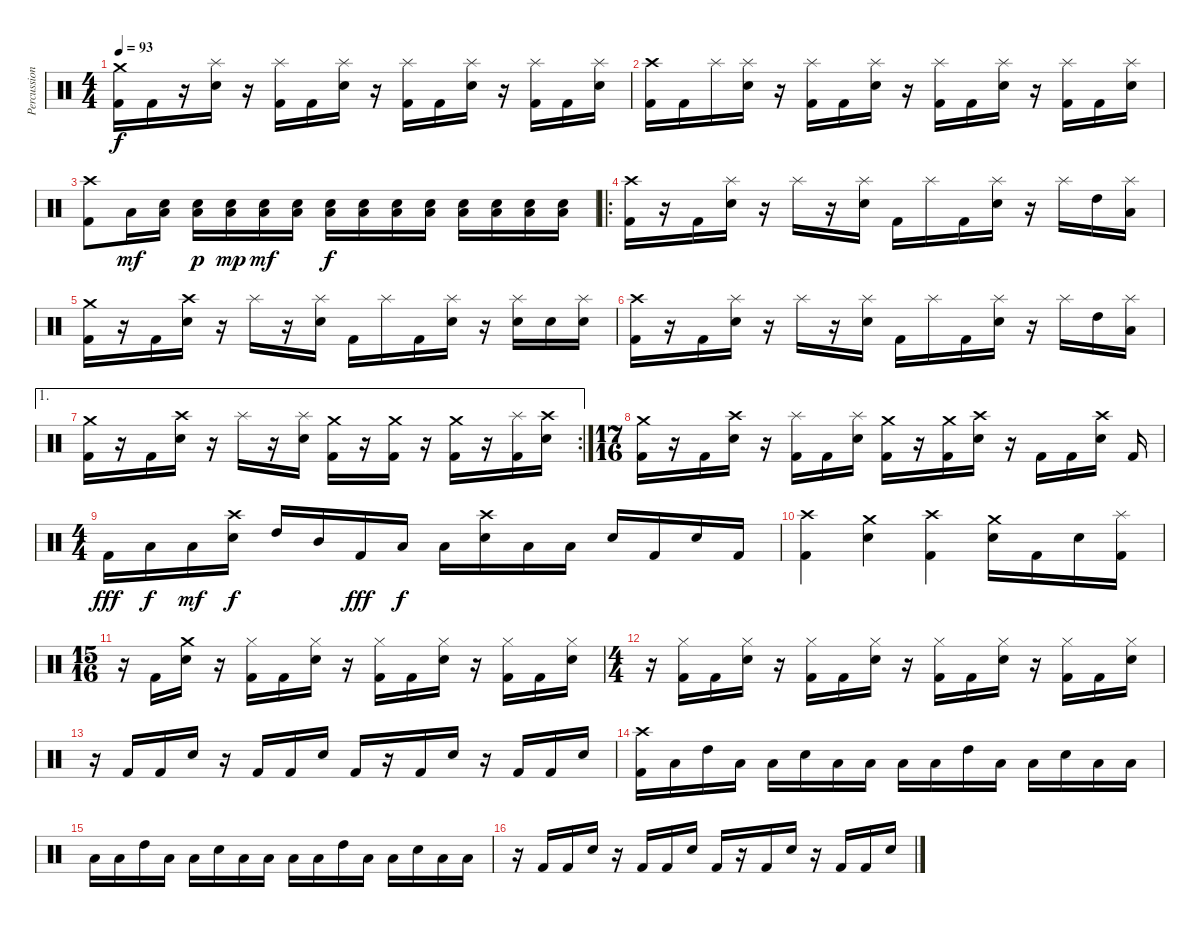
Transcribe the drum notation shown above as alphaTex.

\track ("Percussion" "Percussion") {instrument percussion}
\staff {score}
\articulation defaults
\ts (4 4)
\tempo 93
\clef neutral
\ks c
("Crash medium (hit)" "Kick (hit) 2").16{dy f} "Kick (hit) 2".16 r.16 ("Splash (hit)" "Electric Snare (hit)").16 r.16 ("Splash (hit)" "Kick (hit) 2").16 "Kick (hit) 2".16 ("Splash (hit)" "Electric Snare (hit)").16 r.16 ("Splash (hit)" "Kick (hit) 2").16 "Kick (hit) 2".16 ("Splash (hit)" "Electric Snare (hit)").16 r.16 ("Splash (hit)" "Kick (hit) 2").16 "Kick (hit) 2".16 ("Splash (hit)" "Electric Snare (hit)").16 |
("Crash high (hit)" "Kick (hit) 2").16 "Kick (hit) 2".16 "Splash (hit)".16 ("Splash (hit)" "Electric Snare (hit)").16 r.16 ("Splash (hit)" "Kick (hit) 2").16 "Kick (hit) 2".16 ("Splash (hit)" "Electric Snare (hit)").16 r.16 ("Splash (hit)" "Kick (hit) 2").16 "Kick (hit) 2".16 ("Splash (hit)" "Electric Snare (hit)").16 r.16 ("Splash (hit)" "Kick (hit) 2").16 "Kick (hit) 2".16 ("Splash (hit)" "Electric Snare (hit)").16 |
("Crash high (hit)" "Kick (hit) 2").8 "Low Tom (hit)".16{dy mf} ("Electric Snare (hit)" "Low Tom (hit)").16 ("Electric Snare (hit)" "Low Tom (hit)").16{dy p} ("Electric Snare (hit)" "Low Tom (hit)").16{dy mp} ("Electric Snare (hit)" "Low Tom (hit)").16{dy mf} ("Electric Snare (hit)" "Low Tom (hit)").16 ("Electric Snare (hit)" "Low Tom (hit)").16{dy f} ("Electric Snare (hit)" "Low Tom (hit)").16 ("Electric Snare (hit)" "Low Tom (hit)").16 ("Electric Snare (hit)" "Low Tom (hit)").16 ("Electric Snare (hit)" "Low Tom (hit)").16 ("Electric Snare (hit)" "Low Tom (hit)").16 ("Electric Snare (hit)" "Low Tom (hit)").16 ("Electric Snare (hit)" "Low Tom (hit)").16 |
\ro
("Crash high (hit)" "Kick (hit) 2").16 r.16 "Kick (hit) 2".16 ("Splash (hit)" "Electric Snare (hit)").16 r.16 "Splash (hit)".16 r.16 ("Splash (hit)" "Electric Snare (hit)").16 "Kick (hit) 2".16 "Splash (hit)".16 "Kick (hit) 2".16 ("Splash (hit)" "Electric Snare (hit)").16 r.16 "Splash (hit)".16 "High Tom (hit)".16 ("Splash (hit)" "Low Tom (hit)").16 |
("Crash medium (hit)" "Kick (hit) 2").16 r.16 "Kick (hit) 2".16 ("Crash high (hit)" "Electric Snare (hit)").16 r.16 "Splash (hit)".16 r.16 ("Splash (hit)" "Electric Snare (hit)").16 "Kick (hit) 2".16 "Splash (hit)".16 "Kick (hit) 2".16 ("Splash (hit)" "Electric Snare (hit)").16 r.16 ("Splash (hit)" "Electric Snare (hit)").16 "Electric Snare (hit)".16 ("Splash (hit)" "Electric Snare (hit)").16 |
("Crash high (hit)" "Kick (hit) 2").16 r.16 "Kick (hit) 2".16 ("Splash (hit)" "Electric Snare (hit)").16 r.16 "Splash (hit)".16 r.16 ("Splash (hit)" "Electric Snare (hit)").16 "Kick (hit) 2".16 "Splash (hit)".16 "Kick (hit) 2".16 ("Splash (hit)" "Electric Snare (hit)").16 r.16 "Splash (hit)".16 "High Tom (hit)".16 ("Splash (hit)" "Low Tom (hit)").16 |
\ae 1
\rc 2
("Crash medium (hit)" "Kick (hit) 2").16 r.16 "Kick (hit) 2".16 ("Crash high (hit)" "Electric Snare (hit)").16 r.16 "Splash (hit)".16 r.16 ("Splash (hit)" "Electric Snare (hit)").16 ("Crash medium (hit)" "Kick (hit) 2").16 r.16 ("Crash medium (hit)" "Kick (hit) 2").16 r.16 ("Crash medium (hit)" "Kick (hit) 2").16 r.16 ("Splash (hit)" "Kick (hit) 2").16 ("Crash high (hit)" "Electric Snare (hit)").16 |
\ts (17 16)
("Crash medium (hit)" "Kick (hit) 2").16 r.16 "Kick (hit) 2".16 ("Crash high (hit)" "Electric Snare (hit)").16 r.16 ("Splash (hit)" "Kick (hit) 2").16 "Kick (hit) 2".16 ("Splash (hit)" "Electric Snare (hit)").16 ("Crash medium (hit)" "Kick (hit) 2").16 r.16 ("Crash medium (hit)" "Kick (hit) 2").16 ("Crash high (hit)" "Electric Snare (hit)").16 r.16 "Kick (hit) 2".16 "Kick (hit) 2".16 ("Crash high (hit)" "Electric Snare (hit)").16 "Kick (hit) 2".16 |
\ts (4 4)
"Kick (hit) 2".16{dy fff} "Low Floor Tom (hit)".16{dy f} "Low Tom (hit)".16{dy mf} ("Crash high (hit)" "Electric Snare (hit)").16{dy f} "High Tom (hit)".16 "Mid Tom (hit)".16 "Kick (hit) 2".16{dy fff} "Low Floor Tom (hit)".16{dy f} "Low Tom (hit)".16 ("Crash high (hit)" "Electric Snare (hit)").16 "Low Floor Tom (hit)".16 "Low Tom (hit)".16 "Electric Snare (hit)".16 "Kick (hit) 2".16 "Electric Snare (hit)".16 "Kick (hit) 2".16 |
("Crash high (hit)" "Kick (hit) 2").4 ("Crash medium (hit)" "Electric Snare (hit)").4 ("Crash high (hit)" "Kick (hit) 2").4 ("Crash medium (hit)" "Electric Snare (hit)").16 "Kick (hit) 2".16 "Electric Snare (hit)".16 ("Splash (hit)" "Kick (hit) 2").16 |
\ts (15 16)
r.16 "Kick (hit) 2".16 ("Crash medium (hit)" "Electric Snare (hit)").16 r.16 ("Hi-Hat (closed)" "Kick (hit) 2").16 "Kick (hit) 2".16 ("Hi-Hat (closed)" "Electric Snare (hit)").16 r.16 ("Hi-Hat (closed)" "Kick (hit) 2").16 "Kick (hit) 2".16 ("Hi-Hat (closed)" "Electric Snare (hit)").16 r.16 ("Hi-Hat (closed)" "Kick (hit) 2").16 "Kick (hit) 2".16 ("Hi-Hat (closed)" "Electric Snare (hit)").16 |
\ts (4 4)
r.16 ("Hi-Hat (closed)" "Kick (hit) 2").16 "Kick (hit) 2".16 ("Hi-Hat (closed)" "Electric Snare (hit)").16 r.16 ("Hi-Hat (closed)" "Kick (hit) 2").16 "Kick (hit) 2".16 ("Hi-Hat (closed)" "Electric Snare (hit)").16 r.16 ("Hi-Hat (closed)" "Kick (hit) 2").16 "Kick (hit) 2".16 ("Hi-Hat (closed)" "Electric Snare (hit)").16 r.16 ("Hi-Hat (closed)" "Kick (hit) 2").16 "Kick (hit) 2".16 ("Hi-Hat (closed)" "Electric Snare (hit)").16 |
r.16 "Kick (hit) 2".16 "Kick (hit) 2".16 "Electric Snare (hit)".16 r.16 "Kick (hit) 2".16 "Kick (hit) 2".16 "Electric Snare (hit)".16 "Kick (hit) 2".16 r.16 "Kick (hit) 2".16 "Electric Snare (hit)".16 r.16 "Kick (hit) 2".16 "Kick (hit) 2".16 "Electric Snare (hit)".16 |
("Crash high (hit)" "Kick (hit) 2").16 "Low Tom (hit)".16 "High Tom (hit)".16 "Low Tom (hit)".16 "Low Tom (hit)".16 "Electric Snare (hit)".16 "Low Tom (hit)".16 "Low Tom (hit)".16 "Low Tom (hit)".16 "Low Tom (hit)".16 "High Tom (hit)".16 "Low Tom (hit)".16 "Low Tom (hit)".16 "Electric Snare (hit)".16 "Low Tom (hit)".16 "Low Tom (hit)".16 |
"Low Tom (hit)".16 "Low Tom (hit)".16 "High Tom (hit)".16 "Low Tom (hit)".16 "Low Tom (hit)".16 "Electric Snare (hit)".16 "Low Tom (hit)".16 "Low Tom (hit)".16 "Low Tom (hit)".16 "Low Tom (hit)".16 "High Tom (hit)".16 "Low Tom (hit)".16 "Low Tom (hit)".16 "Electric Snare (hit)".16 "Low Tom (hit)".16 "Low Tom (hit)".16 |
r.16 "Kick (hit) 2".16 "Kick (hit) 2".16 "Electric Snare (hit)".16 r.16 "Kick (hit) 2".16 "Kick (hit) 2".16 "Electric Snare (hit)".16 "Kick (hit) 2".16 r.16 "Kick (hit) 2".16 "Electric Snare (hit)".16 r.16 "Kick (hit) 2".16 "Kick (hit) 2".16 "Electric Snare (hit)".16
